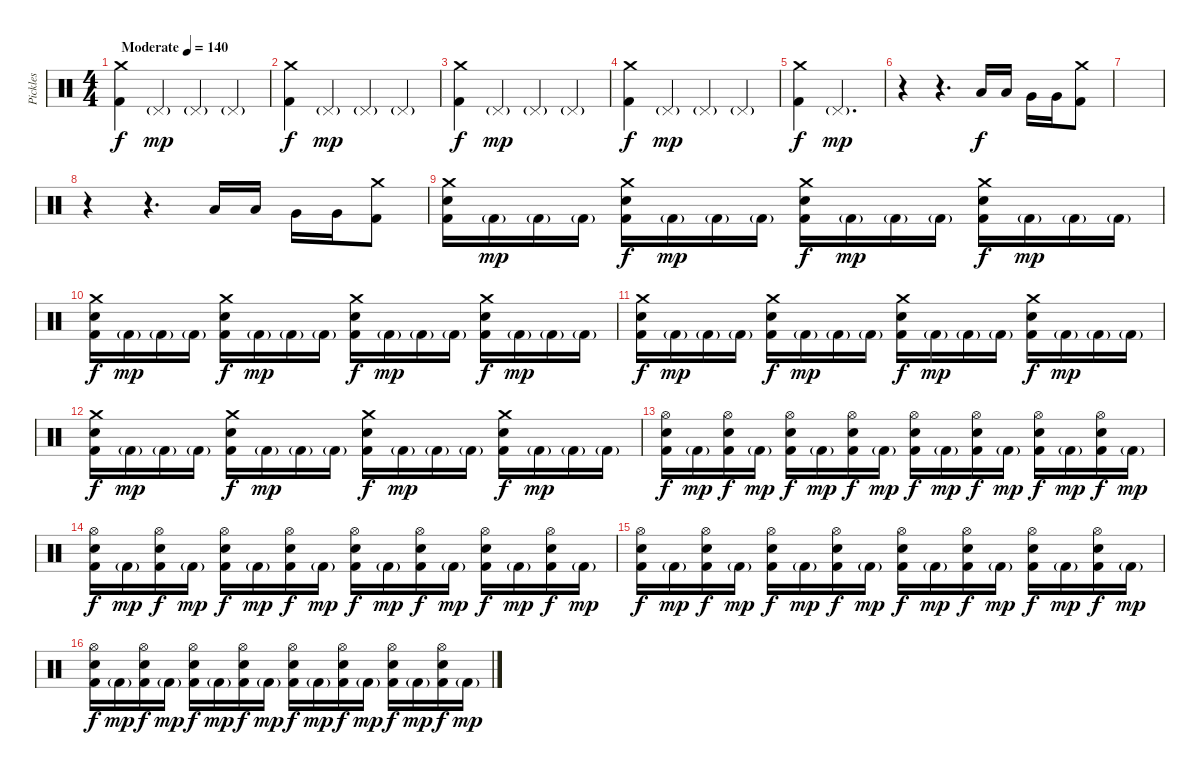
\track ("Pickles" "Pickles") {instrument percussion}
\staff {score}
\articulation defaults
\ts (4 4)
\tempo (140 "Moderate")
\clef neutral
\ks c
("Crash medium (hit)" "Kick (hit) 2").4{dy f} "Pedal Hi-Hat (hit)"{g}.4{dy mp} "Pedal Hi-Hat (hit)"{g}.4 "Pedal Hi-Hat (hit)"{g}.4 |
("Crash medium (hit)" "Kick (hit) 2").4{dy f} "Pedal Hi-Hat (hit)"{g}.4{dy mp} "Pedal Hi-Hat (hit)"{g}.4 "Pedal Hi-Hat (hit)"{g}.4 |
("Crash medium (hit)" "Kick (hit) 2").4{dy f} "Pedal Hi-Hat (hit)"{g}.4{dy mp} "Pedal Hi-Hat (hit)"{g}.4 "Pedal Hi-Hat (hit)"{g}.4 |
("Crash medium (hit)" "Kick (hit) 2").4{dy f} "Pedal Hi-Hat (hit)"{g}.4{dy mp} "Pedal Hi-Hat (hit)"{g}.4 "Pedal Hi-Hat (hit)"{g}.4 |
("Crash medium (hit)" "Kick (hit) 2").4{dy f} "Pedal Hi-Hat (hit)"{g}.2{d dy mp} |
r.4 r.4{d} "Low Tom (hit)".16{dy f} "Low Tom (hit)".16 "Very Low Tom (hit)".16 "Very Low Tom (hit)".16 ("Crash medium (hit)" "Kick (hit) 2").8 |
|
r.4 r.4{d} "Low Tom (hit)".16 "Low Tom (hit)".16 "Very Low Tom (hit)".16 "Very Low Tom (hit)".16 ("Crash medium (hit)" "Kick (hit) 2").8 |
("Crash medium (hit)" "Electric Snare (hit)" "Kick (hit) 2").16 "Kick (hit) 2"{g}.16{dy mp} "Kick (hit) 2"{g}.16 "Kick (hit) 2"{g}.16 ("Crash medium (hit)" "Electric Snare (hit)" "Kick (hit) 2").16{dy f} "Kick (hit) 2"{g}.16{dy mp} "Kick (hit) 2"{g}.16 "Kick (hit) 2"{g}.16 ("Crash medium (hit)" "Electric Snare (hit)" "Kick (hit) 2").16{dy f} "Kick (hit) 2"{g}.16{dy mp} "Kick (hit) 2"{g}.16 "Kick (hit) 2"{g}.16 ("Crash medium (hit)" "Electric Snare (hit)" "Kick (hit) 2").16{dy f} "Kick (hit) 2"{g}.16{dy mp} "Kick (hit) 2"{g}.16 "Kick (hit) 2"{g}.16 |
("Crash medium (hit)" "Electric Snare (hit)" "Kick (hit) 2").16{dy f} "Kick (hit) 2"{g}.16{dy mp} "Kick (hit) 2"{g}.16 "Kick (hit) 2"{g}.16 ("Crash medium (hit)" "Electric Snare (hit)" "Kick (hit) 2").16{dy f} "Kick (hit) 2"{g}.16{dy mp} "Kick (hit) 2"{g}.16 "Kick (hit) 2"{g}.16 ("Crash medium (hit)" "Electric Snare (hit)" "Kick (hit) 2").16{dy f} "Kick (hit) 2"{g}.16{dy mp} "Kick (hit) 2"{g}.16 "Kick (hit) 2"{g}.16 ("Crash medium (hit)" "Electric Snare (hit)" "Kick (hit) 2").16{dy f} "Kick (hit) 2"{g}.16{dy mp} "Kick (hit) 2"{g}.16 "Kick (hit) 2"{g}.16 |
("Crash medium (hit)" "Electric Snare (hit)" "Kick (hit) 2").16{dy f} "Kick (hit) 2"{g}.16{dy mp} "Kick (hit) 2"{g}.16 "Kick (hit) 2"{g}.16 ("Crash medium (hit)" "Electric Snare (hit)" "Kick (hit) 2").16{dy f} "Kick (hit) 2"{g}.16{dy mp} "Kick (hit) 2"{g}.16 "Kick (hit) 2"{g}.16 ("Crash medium (hit)" "Electric Snare (hit)" "Kick (hit) 2").16{dy f} "Kick (hit) 2"{g}.16{dy mp} "Kick (hit) 2"{g}.16 "Kick (hit) 2"{g}.16 ("Crash medium (hit)" "Electric Snare (hit)" "Kick (hit) 2").16{dy f} "Kick (hit) 2"{g}.16{dy mp} "Kick (hit) 2"{g}.16 "Kick (hit) 2"{g}.16 |
("Crash medium (hit)" "Electric Snare (hit)" "Kick (hit) 2").16{dy f} "Kick (hit) 2"{g}.16{dy mp} "Kick (hit) 2"{g}.16 "Kick (hit) 2"{g}.16 ("Crash medium (hit)" "Electric Snare (hit)" "Kick (hit) 2").16{dy f} "Kick (hit) 2"{g}.16{dy mp} "Kick (hit) 2"{g}.16 "Kick (hit) 2"{g}.16 ("Crash medium (hit)" "Electric Snare (hit)" "Kick (hit) 2").16{dy f} "Kick (hit) 2"{g}.16{dy mp} "Kick (hit) 2"{g}.16 "Kick (hit) 2"{g}.16 ("Crash medium (hit)" "Electric Snare (hit)" "Kick (hit) 2").16{dy f} "Kick (hit) 2"{g}.16{dy mp} "Kick (hit) 2"{g}.16 "Kick (hit) 2"{g}.16 |
("Hi-Hat (open)" "Electric Snare (hit)" "Kick (hit) 2").16{dy f} "Kick (hit) 2"{g}.16{dy mp} ("Hi-Hat (open)" "Electric Snare (hit)" "Kick (hit) 2").16{dy f} "Kick (hit) 2"{g}.16{dy mp} ("Hi-Hat (open)" "Electric Snare (hit)" "Kick (hit) 2").16{dy f} "Kick (hit) 2"{g}.16{dy mp} ("Hi-Hat (open)" "Electric Snare (hit)" "Kick (hit) 2").16{dy f} "Kick (hit) 2"{g}.16{dy mp} ("Hi-Hat (open)" "Electric Snare (hit)" "Kick (hit) 2").16{dy f} "Kick (hit) 2"{g}.16{dy mp} ("Hi-Hat (open)" "Electric Snare (hit)" "Kick (hit) 2").16{dy f} "Kick (hit) 2"{g}.16{dy mp} ("Hi-Hat (open)" "Electric Snare (hit)" "Kick (hit) 2").16{dy f} "Kick (hit) 2"{g}.16{dy mp} ("Hi-Hat (open)" "Electric Snare (hit)" "Kick (hit) 2").16{dy f} "Kick (hit) 2"{g}.16{dy mp} |
("Hi-Hat (open)" "Electric Snare (hit)" "Kick (hit) 2").16{dy f} "Kick (hit) 2"{g}.16{dy mp} ("Hi-Hat (open)" "Electric Snare (hit)" "Kick (hit) 2").16{dy f} "Kick (hit) 2"{g}.16{dy mp} ("Hi-Hat (open)" "Electric Snare (hit)" "Kick (hit) 2").16{dy f} "Kick (hit) 2"{g}.16{dy mp} ("Hi-Hat (open)" "Electric Snare (hit)" "Kick (hit) 2").16{dy f} "Kick (hit) 2"{g}.16{dy mp} ("Hi-Hat (open)" "Electric Snare (hit)" "Kick (hit) 2").16{dy f} "Kick (hit) 2"{g}.16{dy mp} ("Hi-Hat (open)" "Electric Snare (hit)" "Kick (hit) 2").16{dy f} "Kick (hit) 2"{g}.16{dy mp} ("Hi-Hat (open)" "Electric Snare (hit)" "Kick (hit) 2").16{dy f} "Kick (hit) 2"{g}.16{dy mp} ("Hi-Hat (open)" "Electric Snare (hit)" "Kick (hit) 2").16{dy f} "Kick (hit) 2"{g}.16{dy mp} |
("Hi-Hat (open)" "Electric Snare (hit)" "Kick (hit) 2").16{dy f} "Kick (hit) 2"{g}.16{dy mp} ("Hi-Hat (open)" "Electric Snare (hit)" "Kick (hit) 2").16{dy f} "Kick (hit) 2"{g}.16{dy mp} ("Hi-Hat (open)" "Electric Snare (hit)" "Kick (hit) 2").16{dy f} "Kick (hit) 2"{g}.16{dy mp} ("Hi-Hat (open)" "Electric Snare (hit)" "Kick (hit) 2").16{dy f} "Kick (hit) 2"{g}.16{dy mp} ("Hi-Hat (open)" "Electric Snare (hit)" "Kick (hit) 2").16{dy f} "Kick (hit) 2"{g}.16{dy mp} ("Hi-Hat (open)" "Electric Snare (hit)" "Kick (hit) 2").16{dy f} "Kick (hit) 2"{g}.16{dy mp} ("Hi-Hat (open)" "Electric Snare (hit)" "Kick (hit) 2").16{dy f} "Kick (hit) 2"{g}.16{dy mp} ("Hi-Hat (open)" "Electric Snare (hit)" "Kick (hit) 2").16{dy f} "Kick (hit) 2"{g}.16{dy mp} |
("Hi-Hat (open)" "Electric Snare (hit)" "Kick (hit) 2").16{dy f} "Kick (hit) 2"{g}.16{dy mp} ("Hi-Hat (open)" "Electric Snare (hit)" "Kick (hit) 2").16{dy f} "Kick (hit) 2"{g}.16{dy mp} ("Hi-Hat (open)" "Electric Snare (hit)" "Kick (hit) 2").16{dy f} "Kick (hit) 2"{g}.16{dy mp} ("Hi-Hat (open)" "Electric Snare (hit)" "Kick (hit) 2").16{dy f} "Kick (hit) 2"{g}.16{dy mp} ("Hi-Hat (open)" "Electric Snare (hit)" "Kick (hit) 2").16{dy f} "Kick (hit) 2"{g}.16{dy mp} ("Hi-Hat (open)" "Electric Snare (hit)" "Kick (hit) 2").16{dy f} "Kick (hit) 2"{g}.16{dy mp} ("Hi-Hat (open)" "Electric Snare (hit)" "Kick (hit) 2").16{dy f} "Kick (hit) 2"{g}.16{dy mp} ("Hi-Hat (open)" "Electric Snare (hit)" "Kick (hit) 2").16{dy f} "Kick (hit) 2"{g}.16{dy mp}
